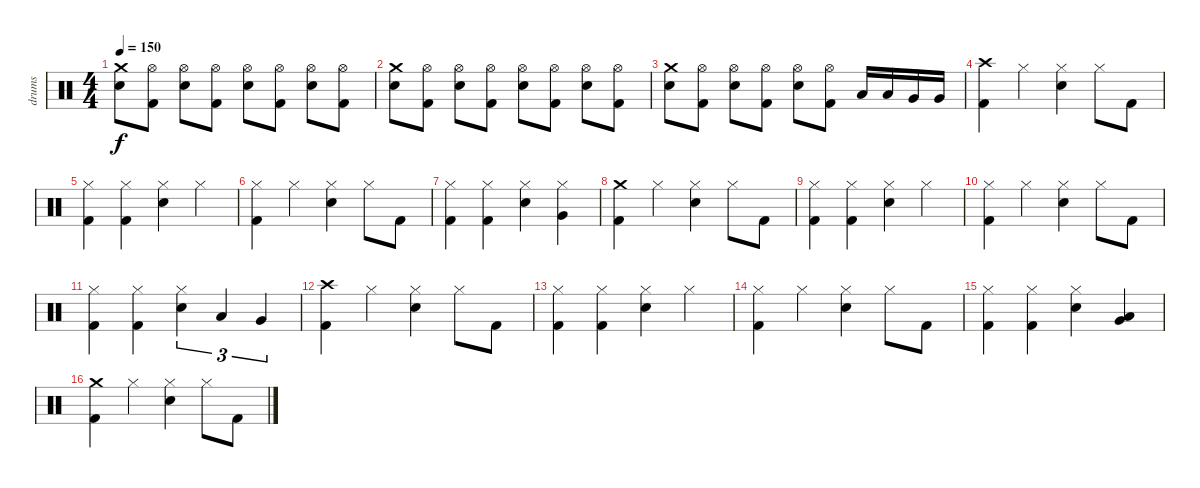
\track ("drums" "drums") {instrument percussion}
\staff {score}
\articulation defaults
\ts (4 4)
\tempo 150
\clef neutral
\ks c
("Crash medium (hit)" "Electric Snare (hit)").8{dy f} ("Hi-Hat (open)" "Kick (hit) 2").8 ("Hi-Hat (open)" "Electric Snare (hit)").8 ("Hi-Hat (open)" "Kick (hit) 2").8 ("Hi-Hat (open)" "Electric Snare (hit)").8 ("Hi-Hat (open)" "Kick (hit) 2").8 ("Hi-Hat (open)" "Electric Snare (hit)").8 ("Hi-Hat (open)" "Kick (hit) 2").8 |
("Crash medium (hit)" "Electric Snare (hit)").8 ("Hi-Hat (open)" "Kick (hit) 2").8 ("Hi-Hat (open)" "Electric Snare (hit)").8 ("Hi-Hat (open)" "Kick (hit) 2").8 ("Hi-Hat (open)" "Electric Snare (hit)").8 ("Hi-Hat (open)" "Kick (hit) 2").8 ("Hi-Hat (open)" "Electric Snare (hit)").8 ("Hi-Hat (open)" "Kick (hit) 2").8 |
("Crash medium (hit)" "Electric Snare (hit)").8 ("Hi-Hat (open)" "Kick (hit) 2").8 ("Hi-Hat (open)" "Electric Snare (hit)").8 ("Hi-Hat (open)" "Kick (hit) 2").8 ("Hi-Hat (open)" "Electric Snare (hit)").8 ("Hi-Hat (open)" "Kick (hit) 2").8 "Low Tom (hit)".16 "Low Tom (hit)".16 "Very Low Tom (hit)".16 "Very Low Tom (hit)".16 |
("Crash high (hit)" "Kick (hit) 2").4 "Hi-Hat (closed)".4 ("Hi-Hat (closed)" "Electric Snare (hit)").4 "Hi-Hat (closed)".8 "Kick (hit) 2".8 |
("Hi-Hat (closed)" "Kick (hit) 2").4 ("Hi-Hat (closed)" "Kick (hit) 2").4 ("Hi-Hat (closed)" "Electric Snare (hit)").4 "Hi-Hat (closed)".4 |
("Hi-Hat (closed)" "Kick (hit) 2").4 "Hi-Hat (closed)".4 ("Hi-Hat (closed)" "Electric Snare (hit)").4 "Hi-Hat (closed)".8 "Kick (hit) 2".8 |
("Hi-Hat (closed)" "Kick (hit) 2").4 ("Hi-Hat (closed)" "Kick (hit) 2").4 ("Hi-Hat (closed)" "Electric Snare (hit)").4 ("Hi-Hat (closed)" "Very Low Tom (hit)").4 |
("Crash medium (hit)" "Kick (hit) 2").4 "Hi-Hat (closed)".4 ("Hi-Hat (closed)" "Electric Snare (hit)").4 "Hi-Hat (closed)".8 "Kick (hit) 2".8 |
("Hi-Hat (closed)" "Kick (hit) 2").4 ("Hi-Hat (closed)" "Kick (hit) 2").4 ("Hi-Hat (closed)" "Electric Snare (hit)").4 "Hi-Hat (closed)".4 |
("Hi-Hat (closed)" "Kick (hit) 2").4 "Hi-Hat (closed)".4 ("Hi-Hat (closed)" "Electric Snare (hit)").4 "Hi-Hat (closed)".8 "Kick (hit) 2".8 |
("Hi-Hat (closed)" "Kick (hit) 2").4 ("Hi-Hat (closed)" "Kick (hit) 2").4 ("Hi-Hat (closed)" "Electric Snare (hit)").4{tu (3 2)} "Low Tom (hit)".4{tu (3 2)} "Very Low Tom (hit)".4{tu (3 2)} |
("Crash high (hit)" "Kick (hit) 2").4 "Hi-Hat (closed)".4 ("Hi-Hat (closed)" "Electric Snare (hit)").4 "Hi-Hat (closed)".8 "Kick (hit) 2".8 |
("Hi-Hat (closed)" "Kick (hit) 2").4 ("Hi-Hat (closed)" "Kick (hit) 2").4 ("Hi-Hat (closed)" "Electric Snare (hit)").4 "Hi-Hat (closed)".4 |
("Hi-Hat (closed)" "Kick (hit) 2").4 "Hi-Hat (closed)".4 ("Hi-Hat (closed)" "Electric Snare (hit)").4 "Hi-Hat (closed)".8 "Kick (hit) 2".8 |
("Hi-Hat (closed)" "Kick (hit) 2").4 ("Hi-Hat (closed)" "Kick (hit) 2").4 ("Hi-Hat (closed)" "Electric Snare (hit)").4 ("Low Floor Tom (hit)" "Very Low Tom (hit)").4 |
("Crash medium (hit)" "Kick (hit) 2").4 "Hi-Hat (closed)".4 ("Hi-Hat (closed)" "Electric Snare (hit)").4 "Hi-Hat (closed)".8 "Kick (hit) 2".8
